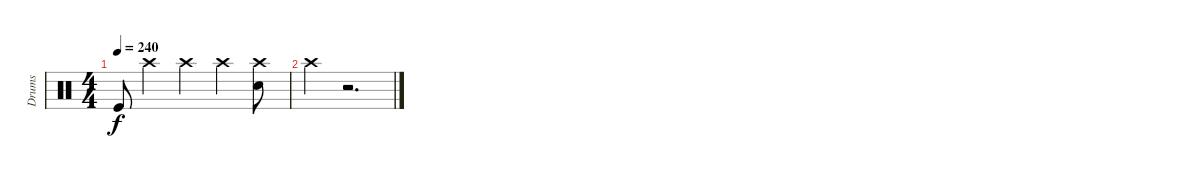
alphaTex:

\track ("Drums" "Drums") {instrument percussion}
\staff {score}
\articulation defaults
\ts (4 4)
\tempo 240
\clef neutral
\ks c "Kick (hit)".8{dy f} "Crash high (hit)".4 "Crash high (hit)".4 "Crash high (hit)".4
("Snare (hit) 2" "Crash high (hit)").8 |
"Crash high (hit)".4 r.2{d}
